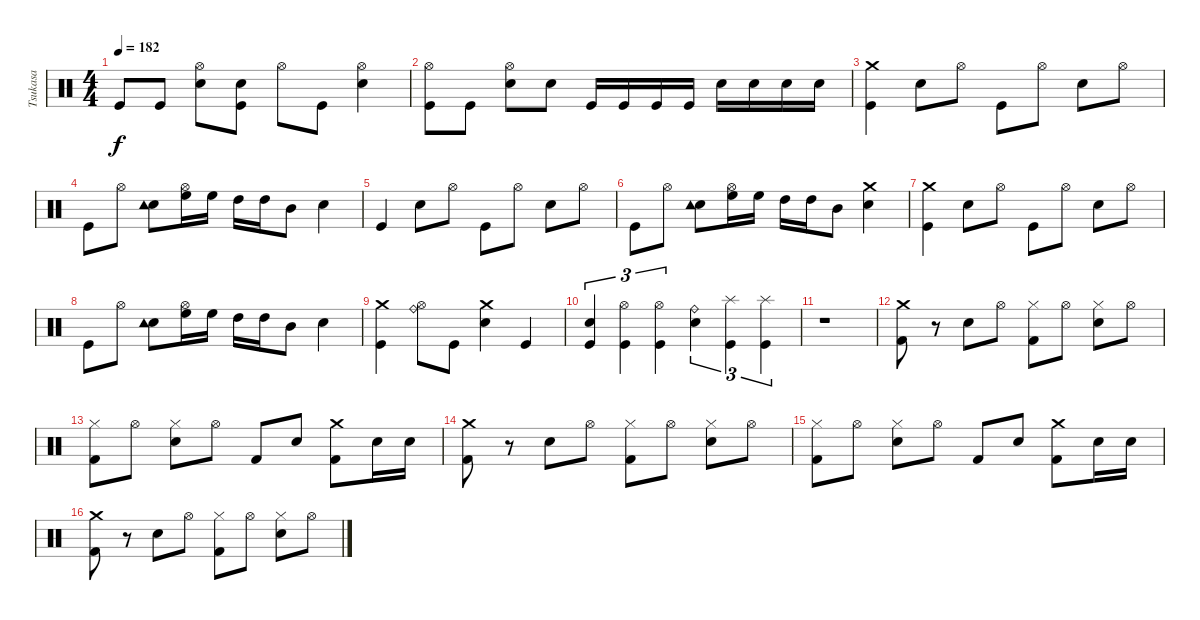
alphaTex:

\track ("Tsukasa" "Tsukasa") {instrument percussion}
\staff {score}
\articulation defaults
\ts (4 4)
\tempo 182
\clef neutral
\ks c "Kick (hit)".8{dy f} "Kick (hit)".8
("Electric Snare (hit)" "Hi-Hat (open)").8 ("Kick (hit)" "Electric Snare (hit)").8 "Hi-Hat (open)".8 "Kick (hit)".8 ("Electric Snare (hit)" "Hi-Hat (open)").4 |
("Kick (hit)" "Hi-Hat (open)").8 "Kick (hit)".8 ("Electric Snare (hit)" "Hi-Hat (open)").8 "Electric Snare (hit)".8 "Kick (hit)".16 "Kick (hit)".16 "Kick (hit)".16 "Kick (hit)".16 "Electric Snare (hit)".16 "Electric Snare (hit)".16 "Electric Snare (hit)".16 "Electric Snare (hit)".16 |
("Kick (hit)" "Crash medium (hit)").4 "Electric Snare (hit)".8 "Hi-Hat (open)".8 "Kick (hit)".8 "Hi-Hat (open)".8 "Electric Snare (hit)".8 "Hi-Hat (open)".8 |
"Kick (hit)".8 "Hi-Hat (open)".8 ("Electric Snare (hit)" "Tambourine (hit)").8 ("High Floor Tom (hit)" "Hi-Hat (open)").16 "High Floor Tom (hit)".16 "High Tom (hit)".16 "High Tom (hit)".16 "Mid Tom (hit)".8 "Electric Snare (hit)".4 |
"Kick (hit)".4 "Electric Snare (hit)".8 "Hi-Hat (open)".8 "Kick (hit)".8 "Hi-Hat (open)".8 "Electric Snare (hit)".8 "Hi-Hat (open)".8 |
"Kick (hit)".8 "Hi-Hat (open)".8 ("Electric Snare (hit)" "Tambourine (hit)").8 ("High Floor Tom (hit)" "Hi-Hat (open)").16 "High Floor Tom (hit)".16 "High Tom (hit)".16 "High Tom (hit)".16 "Mid Tom (hit)".8 ("Electric Snare (hit)" "Crash medium (hit)").4 |
("Kick (hit)" "Crash medium (hit)").4 "Electric Snare (hit)".8 "Hi-Hat (open)".8 "Kick (hit)".8 "Hi-Hat (open)".8 "Electric Snare (hit)".8 "Hi-Hat (open)".8 |
"Kick (hit)".8 "Hi-Hat (open)".8 ("Electric Snare (hit)" "Tambourine (hit)").8 ("High Floor Tom (hit)" "Hi-Hat (open)").16 "High Floor Tom (hit)".16 "High Tom (hit)".16 "High Tom (hit)".16 "Mid Tom (hit)".8 "Electric Snare (hit)".4 |
("Kick (hit)" "Crash medium (hit)").4 ("Hi-Hat (open)" "Ride (bell)").8 "Kick (hit)".8 ("Electric Snare (hit)" "Crash medium (hit)").4 "Kick (hit)".4 |
("Kick (hit)" "Electric Snare (hit)").4{tu (3 2)} ("Kick (hit)" "Hi-Hat (open)").4{tu (3 2)} ("Kick (hit)" "Hi-Hat (open)").4{tu (3 2)} ("Electric Snare (hit)" "Ride (bell)").4{tu (3 2)} ("Kick (hit)" "Splash (hit)").4{tu (3 2)} ("Kick (hit)" "Splash (hit)").4{tu (3 2)} |
r.1 |
("Kick (hit) 2" "Crash medium (hit)").8 r.8 "Electric Snare (hit)".8 "Hi-Hat (open)".8 ("Kick (hit) 2" "Hi-Hat (closed)").8 "Hi-Hat (open)".8 ("Electric Snare (hit)" "Hi-Hat (closed)").8 "Hi-Hat (open)".8 |
("Kick (hit) 2" "Hi-Hat (closed)").8 "Hi-Hat (open)".8 ("Electric Snare (hit)" "Hi-Hat (closed)").8 "Hi-Hat (open)".8 "Kick (hit) 2".8 "Electric Snare (hit)".8 ("Kick (hit) 2" "Crash medium (hit)").8 "Electric Snare (hit)".16 "Electric Snare (hit)".16 |
("Kick (hit) 2" "Crash medium (hit)").8 r.8 "Electric Snare (hit)".8 "Hi-Hat (open)".8 ("Kick (hit) 2" "Hi-Hat (closed)").8 "Hi-Hat (open)".8 ("Electric Snare (hit)" "Hi-Hat (closed)").8 "Hi-Hat (open)".8 |
("Kick (hit) 2" "Hi-Hat (closed)").8 "Hi-Hat (open)".8 ("Electric Snare (hit)" "Hi-Hat (closed)").8 "Hi-Hat (open)".8 "Kick (hit) 2".8 "Electric Snare (hit)".8 ("Kick (hit) 2" "Crash medium (hit)").8 "Electric Snare (hit)".16 "Electric Snare (hit)".16 |
("Kick (hit) 2" "Crash medium (hit)").8 r.8 "Electric Snare (hit)".8 "Hi-Hat (open)".8 ("Kick (hit) 2" "Hi-Hat (closed)").8 "Hi-Hat (open)".8 ("Electric Snare (hit)" "Hi-Hat (closed)").8 "Hi-Hat (open)".8
